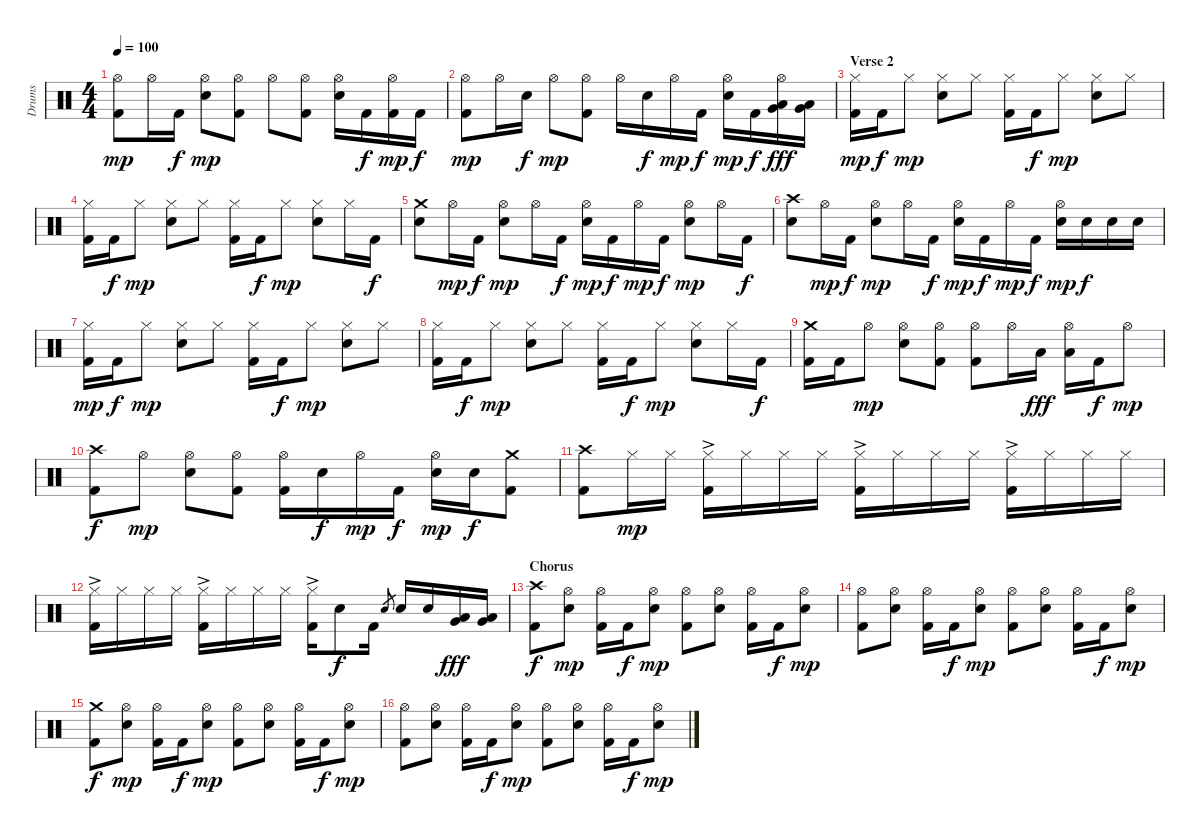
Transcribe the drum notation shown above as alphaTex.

\track ("Drums" "Drums") {instrument percussion}
\staff {score}
\articulation defaults
\ts (4 4)
\tempo 100
\clef neutral
\ks c
("Hi-Hat (open)" "Kick (hit) 2").8{dy mp} "Hi-Hat (open)".16 "Kick (hit) 2".16{dy f} ("Hi-Hat (open)" "Snare (hit) 2").8{dy mp} ("Hi-Hat (open)" "Kick (hit) 2").8 "Hi-Hat (open)".8 ("Hi-Hat (open)" "Kick (hit) 2").8 ("Hi-Hat (open)" "Snare (hit) 2").16 "Kick (hit) 2".16{dy f} ("Hi-Hat (open)" "Kick (hit) 2").16{dy mp} "Kick (hit) 2".16{dy f} |
("Hi-Hat (open)" "Kick (hit) 2").8{dy mp} "Hi-Hat (open)".16 "Snare (hit) 2".16{dy f} "Hi-Hat (open)".8{dy mp} ("Hi-Hat (open)" "Kick (hit) 2").8 "Hi-Hat (open)".16 "Snare (hit) 2".16{dy f} "Hi-Hat (open)".16{dy mp} "Kick (hit) 2".16{dy f} ("Hi-Hat (open)" "Snare (hit) 2").16{dy mp} "Kick (hit) 2".16{dy f} ("Hi-Hat (open)" "Low Floor Tom (hit)" "Very Low Tom (hit)").16{dy fff} ("Low Floor Tom (hit)" "Very Low Tom (hit)").16 |
\section ("" "Verse 2")
("Hi-Hat (closed)" "Kick (hit) 2").16{dy mp} "Kick (hit) 2".16{dy f} "Hi-Hat (closed)".8{dy mp} ("Hi-Hat (closed)" "Snare (hit) 2").8 "Hi-Hat (closed)".8 ("Hi-Hat (closed)" "Kick (hit) 2").16 "Kick (hit) 2".16{dy f} "Hi-Hat (closed)".8{dy mp} ("Hi-Hat (closed)" "Snare (hit) 2").8 "Hi-Hat (closed)".8 |
("Hi-Hat (closed)" "Kick (hit) 2").16 "Kick (hit) 2".16{dy f} "Hi-Hat (closed)".8{dy mp} ("Hi-Hat (closed)" "Snare (hit) 2").8 "Hi-Hat (closed)".8 ("Hi-Hat (closed)" "Kick (hit) 2").16 "Kick (hit) 2".16{dy f} "Hi-Hat (closed)".8{dy mp} ("Hi-Hat (closed)" "Snare (hit) 2").8 "Hi-Hat (closed)".16 "Kick (hit) 2".16{dy f} |
("Crash medium (hit)" "Snare (hit) 2").8 "Hi-Hat (open)".16{dy mp} "Kick (hit) 2".16{dy f} ("Hi-Hat (open)" "Snare (hit) 2").8{dy mp} "Hi-Hat (open)".16 "Kick (hit) 2".16{dy f} ("Hi-Hat (open)" "Snare (hit) 2").16{dy mp} "Kick (hit) 2".16{dy f} "Hi-Hat (open)".16{dy mp} "Kick (hit) 2".16{dy f} ("Hi-Hat (open)" "Snare (hit) 2").8{dy mp} "Hi-Hat (open)".16 "Kick (hit) 2".16{dy f} |
("Crash high (hit)" "Snare (hit) 2").8 "Hi-Hat (open)".16{dy mp} "Kick (hit) 2".16{dy f} ("Hi-Hat (open)" "Snare (hit) 2").8{dy mp} "Hi-Hat (open)".16 "Kick (hit) 2".16{dy f} ("Hi-Hat (open)" "Snare (hit) 2").16{dy mp} "Kick (hit) 2".16{dy f} "Hi-Hat (open)".16{dy mp} "Kick (hit) 2".16{dy f} ("Hi-Hat (open)" "Snare (hit) 2").16{dy mp} "Snare (hit) 2".16{dy f} "Snare (hit) 2".16 "Snare (hit) 2".16 |
("Hi-Hat (closed)" "Kick (hit) 2").16{dy mp} "Kick (hit) 2".16{dy f} "Hi-Hat (closed)".8{dy mp} ("Hi-Hat (closed)" "Snare (hit) 2").8 "Hi-Hat (closed)".8 ("Hi-Hat (closed)" "Kick (hit) 2").16 "Kick (hit) 2".16{dy f} "Hi-Hat (closed)".8{dy mp} ("Hi-Hat (closed)" "Snare (hit) 2").8 "Hi-Hat (closed)".8 |
("Hi-Hat (closed)" "Kick (hit) 2").16 "Kick (hit) 2".16{dy f} "Hi-Hat (closed)".8{dy mp} ("Hi-Hat (closed)" "Snare (hit) 2").8 "Hi-Hat (closed)".8 ("Hi-Hat (closed)" "Kick (hit) 2").16 "Kick (hit) 2".16{dy f} "Hi-Hat (closed)".8{dy mp} ("Hi-Hat (closed)" "Snare (hit) 2").8 "Hi-Hat (closed)".16 "Kick (hit) 2".16{dy f} |
("Crash medium (hit)" "Kick (hit) 2").16 "Kick (hit) 2".16 "Hi-Hat (open)".8{dy mp} ("Hi-Hat (open)" "Snare (hit) 2").8 ("Hi-Hat (open)" "Kick (hit) 2").8 ("Hi-Hat (open)" "Kick (hit) 2").8 "Hi-Hat (open)".16 "Low Tom (hit)".16{dy fff} ("Hi-Hat (open)" "Low Tom (hit)").16 "Kick (hit) 2".16{dy f} "Hi-Hat (open)".8{dy mp} |
("Crash high (hit)" "Kick (hit) 2").8{dy f} "Hi-Hat (open)".8{dy mp} ("Hi-Hat (open)" "Snare (hit) 2").8 ("Hi-Hat (open)" "Kick (hit) 2").8 ("Hi-Hat (open)" "Kick (hit) 2").16 "Snare (hit) 2".16{dy f} "Hi-Hat (open)".16{dy mp} "Kick (hit) 2".16{dy f} ("Hi-Hat (open)" "Snare (hit) 2").16{dy mp} "Snare (hit) 2".16{dy f} ("Crash medium (hit)" "Kick (hit) 2").8 |
("Crash high (hit)" "Kick (hit) 2").8 "Hi-Hat (closed)".16{dy mp} "Hi-Hat (closed)".16 ("Hi-Hat (closed)"{ac} "Kick (hit) 2").16 "Hi-Hat (closed)".16 "Hi-Hat (closed)".16 "Hi-Hat (closed)".16 ("Hi-Hat (closed)"{ac} "Kick (hit) 2").16 "Hi-Hat (closed)".16 "Hi-Hat (closed)".16 "Hi-Hat (closed)".16 ("Hi-Hat (closed)"{ac} "Kick (hit) 2").16 "Hi-Hat (closed)".16 "Hi-Hat (closed)".16 "Hi-Hat (closed)".16 |
("Hi-Hat (closed)"{ac} "Kick (hit) 2").16 "Hi-Hat (closed)".16 "Hi-Hat (closed)".16 "Hi-Hat (closed)".16 ("Hi-Hat (closed)"{ac} "Kick (hit) 2").16 "Hi-Hat (closed)".16 "Hi-Hat (closed)".16 "Hi-Hat (closed)".16 ("Hi-Hat (closed)"{ac} "Kick (hit) 2").16 "Snare (hit) 2".8{dy f} "Kick (hit) 2".16 "Snare (hit) 2".8{gr} "Snare (hit) 2".16 "Snare (hit) 2".16 ("Very Low Tom (hit)" "Low Floor Tom (hit)").16{dy fff} ("Very Low Tom (hit)" "Low Floor Tom (hit)").16 |
\section ("" "Chorus")
("Crash high (hit)" "Kick (hit) 2").8{dy f} ("Hi-Hat (open)" "Snare (hit) 2").8{dy mp} ("Hi-Hat (open)" "Kick (hit) 2").16 "Kick (hit) 2".16{dy f} ("Hi-Hat (open)" "Snare (hit) 2").8{dy mp} ("Hi-Hat (open)" "Kick (hit) 2").8 ("Hi-Hat (open)" "Snare (hit) 2").8 ("Hi-Hat (open)" "Kick (hit) 2").16 "Kick (hit) 2".16{dy f} ("Hi-Hat (open)" "Snare (hit) 2").8{dy mp} |
("Hi-Hat (open)" "Kick (hit) 2").8 ("Hi-Hat (open)" "Snare (hit) 2").8 ("Hi-Hat (open)" "Kick (hit) 2").16 "Kick (hit) 2".16{dy f} ("Hi-Hat (open)" "Snare (hit) 2").8{dy mp} ("Hi-Hat (open)" "Kick (hit) 2").8 ("Hi-Hat (open)" "Snare (hit) 2").8 ("Hi-Hat (open)" "Kick (hit) 2").16 "Kick (hit) 2".16{dy f} ("Hi-Hat (open)" "Snare (hit) 2").8{dy mp} |
("Crash medium (hit)" "Kick (hit) 2").8{dy f} ("Hi-Hat (open)" "Snare (hit) 2").8{dy mp} ("Hi-Hat (open)" "Kick (hit) 2").16 "Kick (hit) 2".16{dy f} ("Hi-Hat (open)" "Snare (hit) 2").8{dy mp} ("Hi-Hat (open)" "Kick (hit) 2").8 ("Hi-Hat (open)" "Snare (hit) 2").8 ("Hi-Hat (open)" "Kick (hit) 2").16 "Kick (hit) 2".16{dy f} ("Hi-Hat (open)" "Snare (hit) 2").8{dy mp} |
("Hi-Hat (open)" "Kick (hit) 2").8 ("Hi-Hat (open)" "Snare (hit) 2").8 ("Hi-Hat (open)" "Kick (hit) 2").16 "Kick (hit) 2".16{dy f} ("Hi-Hat (open)" "Snare (hit) 2").8{dy mp} ("Hi-Hat (open)" "Kick (hit) 2").8 ("Hi-Hat (open)" "Snare (hit) 2").8 ("Hi-Hat (open)" "Kick (hit) 2").16 "Kick (hit) 2".16{dy f} ("Hi-Hat (open)" "Snare (hit) 2").8{dy mp}
